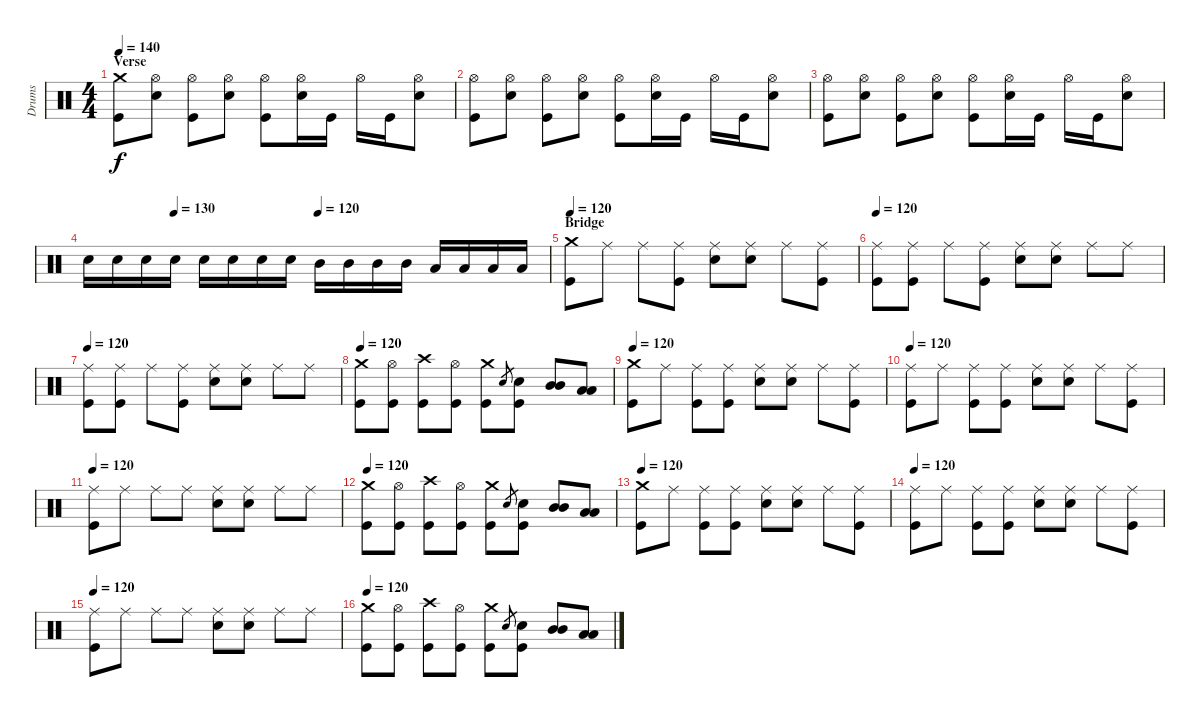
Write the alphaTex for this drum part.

\track ("Drums" "Drums") {instrument percussion}
\staff {score}
\articulation defaults
\ts (4 4)
\section ("" "Verse")
\tempo 140
\clef neutral
\ks c
("Crash medium (hit)" "Kick (hit)").8{dy f} ("Hi-Hat (open)" "Snare (hit) 2").8 ("Hi-Hat (open)" "Kick (hit)").8 ("Hi-Hat (open)" "Snare (hit) 2").8 ("Hi-Hat (open)" "Kick (hit)").8 ("Hi-Hat (open)" "Snare (hit) 2").16 "Kick (hit)".16 "Hi-Hat (open)".16 "Kick (hit)".16 ("Hi-Hat (open)" "Snare (hit) 2").8 |
("Hi-Hat (open)" "Kick (hit)").8 ("Hi-Hat (open)" "Snare (hit) 2").8 ("Hi-Hat (open)" "Kick (hit)").8 ("Hi-Hat (open)" "Snare (hit) 2").8 ("Hi-Hat (open)" "Kick (hit)").8 ("Hi-Hat (open)" "Snare (hit) 2").16 "Kick (hit)".16 "Hi-Hat (open)".16 "Kick (hit)".16 ("Hi-Hat (open)" "Snare (hit) 2").8 |
("Hi-Hat (open)" "Kick (hit)").8 ("Hi-Hat (open)" "Snare (hit) 2").8 ("Hi-Hat (open)" "Kick (hit)").8 ("Hi-Hat (open)" "Snare (hit) 2").8 ("Hi-Hat (open)" "Kick (hit)").8 ("Hi-Hat (open)" "Snare (hit) 2").16 "Kick (hit)".16 "Hi-Hat (open)".16 "Kick (hit)".16 ("Hi-Hat (open)" "Snare (hit) 2").8 |
\tempo (130 0.1875)
\tempo (120 0.5)
"Snare (hit) 2".16 "Snare (hit) 2".16 "Snare (hit) 2".16 "Snare (hit) 2".16 "Snare (hit) 2".16 "Snare (hit) 2".16 "Snare (hit) 2".16 "Snare (hit) 2".16 "Mid Tom (hit)".16 "Mid Tom (hit)".16 "Mid Tom (hit)".16 "Mid Tom (hit)".16 "Low Tom (hit)".16 "Low Tom (hit)".16 "Low Tom (hit)".16 "Low Tom (hit)".16 |
\section ("" "Bridge")
\tempo 120
("Crash medium (hit)" "Kick (hit)").8 "Ride (middle)".8 "Ride (middle)".8 ("Ride (middle)" "Kick (hit)").8 ("Ride (middle)" "Snare (hit) 2").8 ("Ride (middle)" "Snare (hit) 2").8 "Ride (middle)".8 ("Ride (middle)" "Kick (hit)").8 |
\tempo 120
("Ride (middle)" "Kick (hit)").8 ("Ride (middle)" "Kick (hit)").8 "Ride (middle)".8 ("Ride (middle)" "Kick (hit)").8 ("Ride (middle)" "Snare (hit) 2").8 ("Ride (middle)" "Snare (hit) 2").8 "Ride (middle)".8 "Ride (middle)".8 |
\tempo 120
("Ride (middle)" "Kick (hit)").8 ("Ride (middle)" "Kick (hit)").8 "Ride (middle)".8 ("Ride (middle)" "Kick (hit)").8 ("Ride (middle)" "Snare (hit) 2").8 ("Ride (middle)" "Snare (hit) 2").8 "Ride (middle)".8 "Ride (middle)".8 |
\tempo 120
("Crash medium (hit)" "Kick (hit)").8 ("Hi-Hat (open)" "Kick (hit)").8 ("Crash high (hit)" "Kick (hit)").8 ("Hi-Hat (open)" "Kick (hit)").8 ("Crash medium (hit)" "Kick (hit)").8 "Snare (hit) 2".8{gr} ("Snare (hit) 2" "Kick (hit)").8 ("Mid Tom (hit)" "Mid Tom (hit)").8 ("Low Tom (hit)" "Low Tom (hit)").8 |
\tempo 120
("Crash medium (hit)" "Kick (hit)").8 "Ride (middle)".8 ("Ride (middle)" "Kick (hit)").8 ("Ride (middle)" "Kick (hit)").8 ("Ride (middle)" "Snare (hit) 2").8 ("Ride (middle)" "Snare (hit) 2").8 "Ride (middle)".8 ("Ride (middle)" "Kick (hit)").8 |
\tempo 120
("Ride (middle)" "Kick (hit)").8 "Ride (middle)".8 ("Ride (middle)" "Kick (hit)").8 ("Ride (middle)" "Kick (hit)").8 ("Ride (middle)" "Snare (hit) 2").8 ("Ride (middle)" "Snare (hit) 2").8 "Ride (middle)".8 ("Ride (middle)" "Kick (hit)").8 |
\tempo 120
("Ride (middle)" "Kick (hit)").8 "Ride (middle)".8 "Ride (middle)".8 "Ride (middle)".8 ("Ride (middle)" "Snare (hit) 2").8 ("Ride (middle)" "Snare (hit) 2").8 "Ride (middle)".8 "Ride (middle)".8 |
\tempo 120
("Crash medium (hit)" "Kick (hit)").8 ("Hi-Hat (open)" "Kick (hit)").8 ("Crash high (hit)" "Kick (hit)").8 ("Hi-Hat (open)" "Kick (hit)").8 ("Crash medium (hit)" "Kick (hit)").8 "Snare (hit) 2".8{gr} ("Snare (hit) 2" "Kick (hit)").8 ("Mid Tom (hit)" "Mid Tom (hit)").8 ("Low Tom (hit)" "Low Tom (hit)").8 |
\tempo 120
("Crash medium (hit)" "Kick (hit)").8 "Ride (middle)".8 ("Ride (middle)" "Kick (hit)").8 ("Ride (middle)" "Kick (hit)").8 ("Ride (middle)" "Snare (hit) 2").8 ("Ride (middle)" "Snare (hit) 2").8 "Ride (middle)".8 ("Ride (middle)" "Kick (hit)").8 |
\tempo 120
("Ride (middle)" "Kick (hit)").8 "Ride (middle)".8 ("Ride (middle)" "Kick (hit)").8 ("Ride (middle)" "Kick (hit)").8 ("Ride (middle)" "Snare (hit) 2").8 ("Ride (middle)" "Snare (hit) 2").8 "Ride (middle)".8 ("Ride (middle)" "Kick (hit)").8 |
\tempo 120
("Ride (middle)" "Kick (hit)").8 "Ride (middle)".8 "Ride (middle)".8 "Ride (middle)".8 ("Ride (middle)" "Snare (hit) 2").8 ("Ride (middle)" "Snare (hit) 2").8 "Ride (middle)".8 "Ride (middle)".8 |
\tempo 120
("Crash medium (hit)" "Kick (hit)").8 ("Hi-Hat (open)" "Kick (hit)").8 ("Crash high (hit)" "Kick (hit)").8 ("Hi-Hat (open)" "Kick (hit)").8 ("Crash medium (hit)" "Kick (hit)").8 "Snare (hit) 2".8{gr} ("Snare (hit) 2" "Kick (hit)").8 ("Mid Tom (hit)" "Mid Tom (hit)").8 ("Low Tom (hit)" "Low Tom (hit)").8
